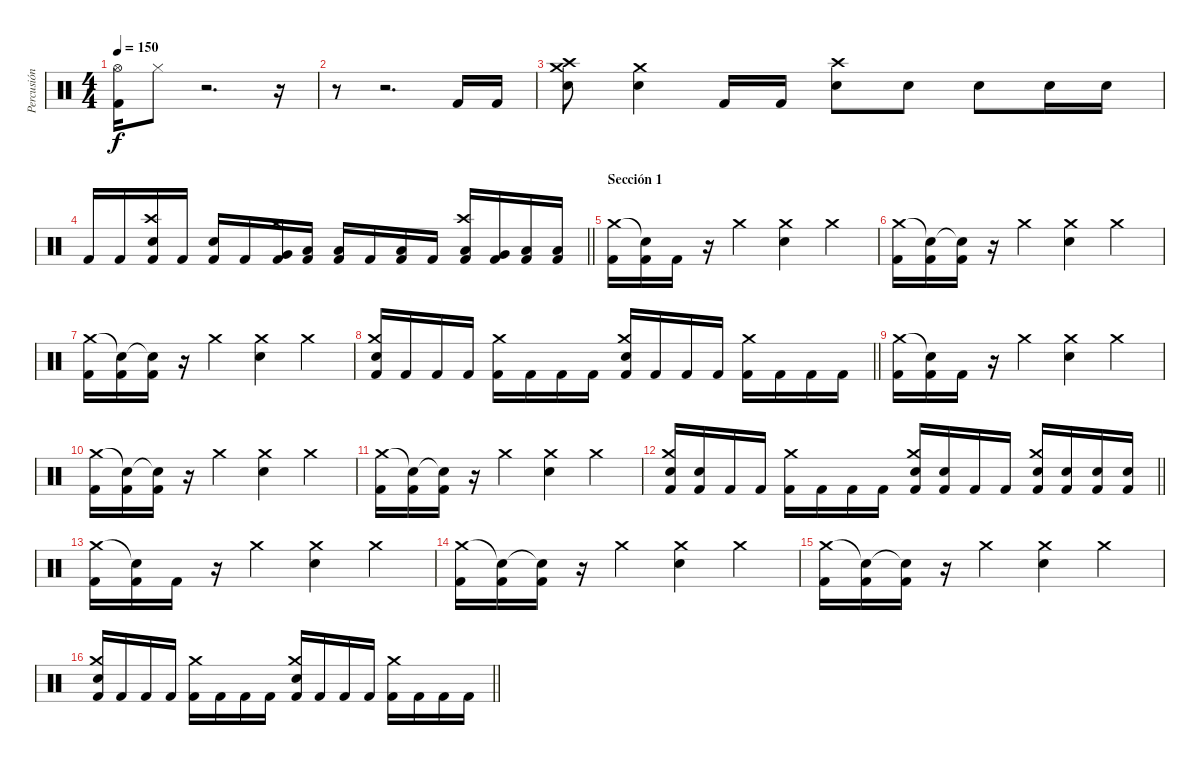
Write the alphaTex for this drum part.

\track ("Percusión" "Percusión") {instrument percussion}
\staff {score}
\articulation defaults
\ts (4 4)
\tempo 150
\clef neutral
\ks c
("Hi-Hat (open)" "Kick (hit) 2").16{dy f} "Hi-Hat (closed)".8 r.2{d} r.16 |
r.8 r.2{d} "Kick (hit) 2".16 "Kick (hit) 2".16 |
("Crash high (hit)" "Crash medium (hit)" "Electric Snare (hit)").8 ("Crash medium (hit)" "Electric Snare (hit)").4 "Kick (hit) 2".16 "Kick (hit) 2".16 ("Crash high (hit)" "Electric Snare (hit)").8 "Electric Snare (hit)".8 "Electric Snare (hit)".8 "Electric Snare (hit)".16 "Electric Snare (hit)".16 |
\barLineRight lightlight "Kick (hit) 2".16 "Kick (hit) 2".16
("Crash high (hit)" "Electric Snare (hit)" "Kick (hit) 2").16 "Kick (hit) 2".16 ("Electric Snare (hit)" "Kick (hit) 2").16 "Kick (hit) 2".16 ("Crash medium (hit)" "Very Low Tom (hit)" "Kick (hit) 2").16 ("Low Floor Tom (hit)" "Kick (hit) 2").16 ("Low Floor Tom (hit)" "Kick (hit) 2").16 "Kick (hit) 2".16 ("Low Floor Tom (hit)" "Kick (hit) 2").16 "Kick (hit) 2".16 ("Crash high (hit)" "Low Tom (hit)" "Kick (hit) 2").16 ("Very Low Tom (hit)" "Kick (hit) 2").16 ("Low Floor Tom (hit)" "Kick (hit) 2").16 ("Low Floor Tom (hit)" "Kick (hit) 2").16 |
\section ("" "Sección 1")
("Crash medium (hit)" "Kick (hit) 2").16 ("Snare (hit)"{t} "Kick (hit) 2").16 "Kick (hit) 2".16 r.16 "Crash medium (hit)".4 ("Crash medium (hit)" "Electric Snare (hit)").4 "Crash medium (hit)".4 |
("Crash medium (hit)" "Kick (hit) 2").16 ("Snare (hit)"{t} "Kick (hit) 2").16 ("Snare (hit)"{t} "Kick (hit) 2").16 r.16 "Crash medium (hit)".4 ("Crash medium (hit)" "Electric Snare (hit)").4 "Crash medium (hit)".4 |
("Crash medium (hit)" "Kick (hit) 2").16 ("Snare (hit)"{t} "Kick (hit) 2").16 ("Snare (hit)"{t} "Kick (hit) 2").16 r.16 "Crash medium (hit)".4 ("Crash medium (hit)" "Electric Snare (hit)").4 "Crash medium (hit)".4 |
\barLineRight lightlight
("Crash medium (hit)" "Electric Snare (hit)" "Kick (hit) 2").16 "Kick (hit) 2".16 "Kick (hit) 2".16 "Kick (hit) 2".16 ("Crash medium (hit)" "Kick (hit) 2").16 "Kick (hit) 2".16 "Kick (hit) 2".16 "Kick (hit) 2".16 ("Crash medium (hit)" "Electric Snare (hit)" "Kick (hit) 2").16 "Kick (hit) 2".16 "Kick (hit) 2".16 "Kick (hit) 2".16 ("Crash medium (hit)" "Kick (hit) 2").16 "Kick (hit) 2".16 "Kick (hit) 2".16 "Kick (hit) 2".16 |
("Crash medium (hit)" "Kick (hit) 2").16 ("Snare (hit)"{t} "Kick (hit) 2").16 "Kick (hit) 2".16 r.16 "Crash medium (hit)".4 ("Crash medium (hit)" "Electric Snare (hit)").4 "Crash medium (hit)".4 |
("Crash medium (hit)" "Kick (hit) 2").16 ("Snare (hit)"{t} "Kick (hit) 2").16 ("Snare (hit)"{t} "Kick (hit) 2").16 r.16 "Crash medium (hit)".4 ("Crash medium (hit)" "Electric Snare (hit)").4 "Crash medium (hit)".4 |
("Crash medium (hit)" "Kick (hit) 2").16 ("Snare (hit)"{t} "Kick (hit) 2").16 ("Snare (hit)"{t} "Kick (hit) 2").16 r.16 "Crash medium (hit)".4 ("Crash medium (hit)" "Electric Snare (hit)").4 "Crash medium (hit)".4 |
\barLineRight lightlight
("Crash medium (hit)" "Electric Snare (hit)" "Kick (hit) 2").16 ("Electric Snare (hit)" "Kick (hit) 2").16 "Kick (hit) 2".16 "Kick (hit) 2".16 ("Crash medium (hit)" "Kick (hit) 2").16 "Kick (hit) 2".16 "Kick (hit) 2".16 "Kick (hit) 2".16 ("Crash medium (hit)" "Electric Snare (hit)" "Kick (hit) 2").16 ("Electric Snare (hit)" "Kick (hit) 2").16 "Kick (hit) 2".16 "Kick (hit) 2".16 ("Crash medium (hit)" "Electric Snare (hit)" "Kick (hit) 2").16 ("Electric Snare (hit)" "Kick (hit) 2").16 ("Electric Snare (hit)" "Kick (hit) 2").16 ("Electric Snare (hit)" "Kick (hit) 2").16 |
("Crash medium (hit)" "Kick (hit) 2").16 ("Snare (hit)"{t} "Kick (hit) 2").16 "Kick (hit) 2".16 r.16 "Crash medium (hit)".4 ("Crash medium (hit)" "Electric Snare (hit)").4 "Crash medium (hit)".4 |
("Crash medium (hit)" "Kick (hit) 2").16 ("Snare (hit)"{t} "Kick (hit) 2").16 ("Snare (hit)"{t} "Kick (hit) 2").16 r.16 "Crash medium (hit)".4 ("Crash medium (hit)" "Electric Snare (hit)").4 "Crash medium (hit)".4 |
("Crash medium (hit)" "Kick (hit) 2").16 ("Snare (hit)"{t} "Kick (hit) 2").16 ("Snare (hit)"{t} "Kick (hit) 2").16 r.16 "Crash medium (hit)".4 ("Crash medium (hit)" "Electric Snare (hit)").4 "Crash medium (hit)".4 |
\barLineRight lightlight
("Crash medium (hit)" "Electric Snare (hit)" "Kick (hit) 2").16 "Kick (hit) 2".16 "Kick (hit) 2".16 "Kick (hit) 2".16 ("Crash medium (hit)" "Kick (hit) 2").16 "Kick (hit) 2".16 "Kick (hit) 2".16 "Kick (hit) 2".16 ("Crash medium (hit)" "Electric Snare (hit)" "Kick (hit) 2").16 "Kick (hit) 2".16 "Kick (hit) 2".16 "Kick (hit) 2".16 ("Crash medium (hit)" "Kick (hit) 2").16 "Kick (hit) 2".16 "Kick (hit) 2".16 "Kick (hit) 2".16
